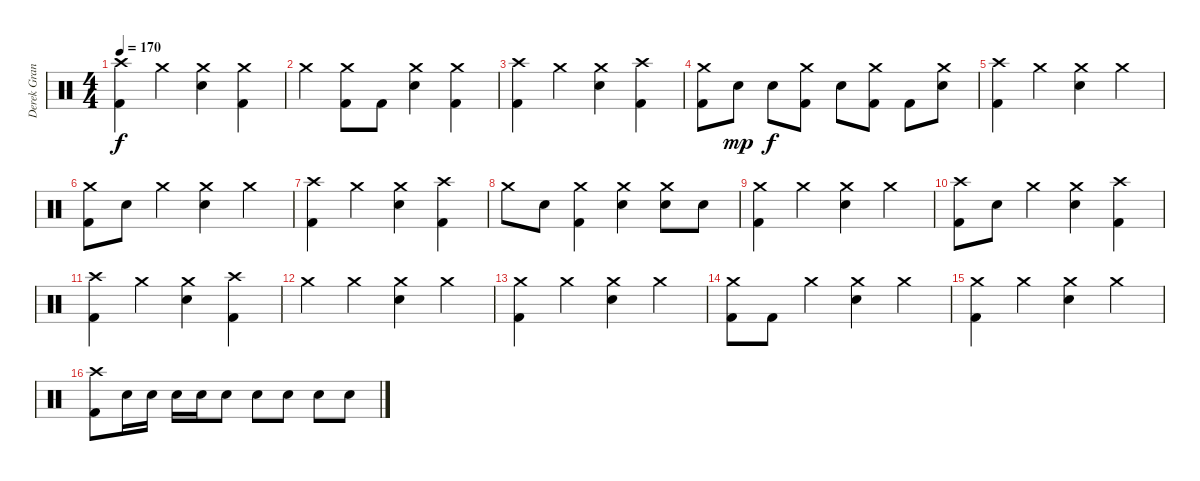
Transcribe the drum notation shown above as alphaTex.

\track ("Derek Grant" "Derek Gran") {instrument percussion}
\staff {score}
\articulation defaults
\ts (4 4)
\tempo 170
\clef neutral
\ks c
("Crash high (hit)" "Kick (hit) 2").4{dy f} "Crash medium (hit)".4 ("Crash medium (hit)" "Snare (hit) 2").4 ("Crash medium (hit)" "Kick (hit) 2").4 |
"Crash medium (hit)".4 ("Crash medium (hit)" "Kick (hit) 2").8 "Kick (hit) 2".8 ("Crash medium (hit)" "Snare (hit) 2").4 ("Crash medium (hit)" "Kick (hit) 2").4 |
("Crash high (hit)" "Kick (hit) 2").4 "Crash medium (hit)".4 ("Crash medium (hit)" "Snare (hit) 2").4 ("Crash high (hit)" "Kick (hit) 2").4 |
("Crash medium (hit)" "Kick (hit) 2").8 "Snare (hit) 2".8{dy mp} "Snare (hit) 2".8{dy f} ("Crash medium (hit)" "Kick (hit) 2").8 "Snare (hit) 2".8 ("Crash medium (hit)" "Kick (hit) 2").8 "Kick (hit) 2".8 ("Crash medium (hit)" "Snare (hit) 2").8 |
("Crash high (hit)" "Kick (hit) 2").4 "Crash medium (hit)".4 ("Crash medium (hit)" "Snare (hit) 2").4 "Crash medium (hit)".4 |
("Crash medium (hit)" "Kick (hit) 2").8 "Snare (hit) 2".8 "Crash medium (hit)".4 ("Crash medium (hit)" "Snare (hit) 2").4 "Crash medium (hit)".4 |
("Crash high (hit)" "Kick (hit) 2").4 "Crash medium (hit)".4 ("Crash medium (hit)" "Snare (hit) 2").4 ("Crash high (hit)" "Kick (hit) 2").4 |
"Crash medium (hit)".8 "Snare (hit) 2".8 ("Crash medium (hit)" "Kick (hit) 2").4 ("Crash medium (hit)" "Snare (hit) 2").4 ("Crash medium (hit)" "Snare (hit) 2").8 "Snare (hit) 2".8 |
("Crash medium (hit)" "Kick (hit) 2").4 "Crash medium (hit)".4 ("Crash medium (hit)" "Snare (hit) 2").4 "Crash medium (hit)".4 |
("Crash high (hit)" "Kick (hit) 2").8 "Snare (hit) 2".8 "Crash medium (hit)".4 ("Crash medium (hit)" "Snare (hit) 2").4 ("Crash high (hit)" "Kick (hit) 2").4 |
("Crash high (hit)" "Kick (hit) 2").4 "Crash medium (hit)".4 ("Crash medium (hit)" "Snare (hit) 2").4 ("Crash high (hit)" "Kick (hit) 2").4 |
"Crash medium (hit)".4 "Crash medium (hit)".4 ("Crash medium (hit)" "Snare (hit) 2").4 "Crash medium (hit)".4 |
("Crash medium (hit)" "Kick (hit) 2").4 "Crash medium (hit)".4 ("Crash medium (hit)" "Snare (hit) 2").4 "Crash medium (hit)".4 |
("Crash medium (hit)" "Kick (hit) 2").8 "Kick (hit) 2".8 "Crash medium (hit)".4 ("Crash medium (hit)" "Snare (hit) 2").4 "Crash medium (hit)".4 |
("Crash medium (hit)" "Kick (hit) 2").4 "Crash medium (hit)".4 ("Crash medium (hit)" "Snare (hit) 2").4 "Crash medium (hit)".4 |
("Crash high (hit)" "Kick (hit) 2").8 "Snare (hit) 2".16 "Snare (hit) 2".16 "Snare (hit) 2".16 "Snare (hit) 2".16 "Snare (hit) 2".8 "Snare (hit) 2".8 "Snare (hit) 2".8 "Snare (hit) 2".8 "Snare (hit) 2".8
